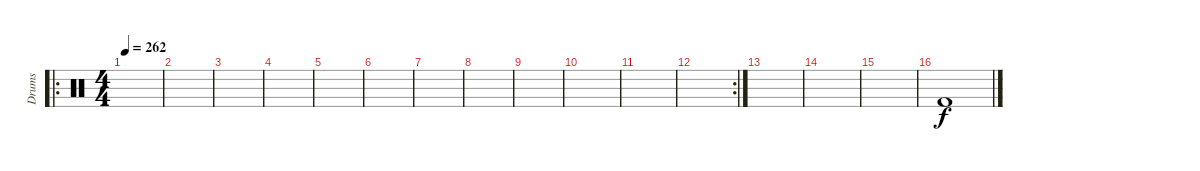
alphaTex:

\track ("Drums" "Drums") {instrument percussion}
\staff {score}
\articulation defaults
\ro
\ts (4 4)
\tempo 262
\clef neutral
\ks c
|
|
|
|
|
|
|
|
|
|
|
\rc 2
|
|
|
|
"Kick (hit) 2".1
